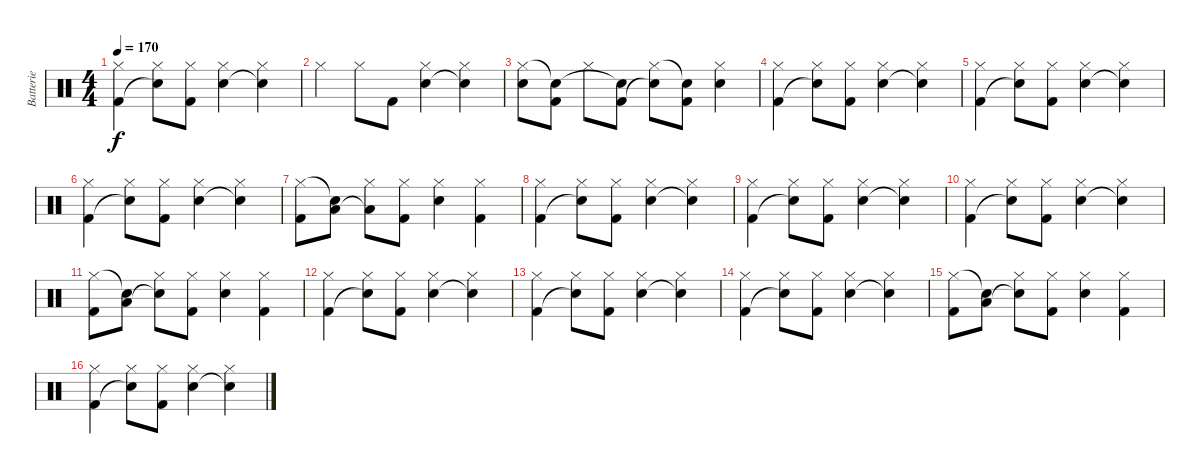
\track ("Batterie" "Batterie") {instrument percussion}
\staff {score}
\articulation defaults
\ts (4 4)
\tempo 170
\clef neutral
\ks c
("Kick (hit) 2" "Hi-Hat (closed)").4{dy f} ("Snare (hit)"{t} "Hi-Hat (closed)").8 ("Kick (hit) 2" "Hi-Hat (closed)").8 ("Snare (hit) 2" "Hi-Hat (closed)").4 ("Snare (hit)"{t} "Hi-Hat (closed)").4 |
"Hi-Hat (closed)".4 "Hi-Hat (closed)".8 "Kick (hit) 2".8 ("Snare (hit) 2" "Hi-Hat (closed)").4 ("Snare (hit)"{t} "Hi-Hat (closed)").4 |
("Snare (hit) 2" "Hi-Hat (closed)").8 ("Kick (hit) 2" "Snare (hit)"{t}).8 "Hi-Hat (closed)".8 ("Kick (hit) 2" "Snare (hit)"{t}).8 ("Snare (hit)"{t} "Hi-Hat (closed)").8 ("Kick (hit) 2" "Snare (hit)"{t}).8 ("Snare (hit) 2" "Hi-Hat (closed)").4 |
("Kick (hit) 2" "Hi-Hat (closed)").4 ("Snare (hit)"{t} "Hi-Hat (closed)").8 ("Kick (hit) 2" "Hi-Hat (closed)").8 ("Snare (hit) 2" "Hi-Hat (closed)").4 ("Snare (hit)"{t} "Hi-Hat (closed)").4 |
("Kick (hit) 2" "Hi-Hat (closed)").4 ("Snare (hit)"{t} "Hi-Hat (closed)").8 ("Kick (hit) 2" "Hi-Hat (closed)").8 ("Snare (hit) 2" "Hi-Hat (closed)").4 ("Snare (hit)"{t} "Hi-Hat (closed)").4 |
("Kick (hit) 2" "Hi-Hat (closed)").4 ("Snare (hit)"{t} "Hi-Hat (closed)").8 ("Kick (hit) 2" "Hi-Hat (closed)").8 ("Snare (hit) 2" "Hi-Hat (closed)").4 ("Snare (hit)"{t} "Hi-Hat (closed)").4 |
("Kick (hit) 2" "Hi-Hat (closed)").8 ("Low Tom (hit)" "Snare (hit)"{t}).8 ("Low Tom (hit)"{t} "Hi-Hat (closed)").8 ("Kick (hit) 2" "Hi-Hat (closed)").8 ("Snare (hit) 2" "Hi-Hat (closed)").4 ("Kick (hit) 2" "Hi-Hat (closed)").4 |
("Kick (hit) 2" "Hi-Hat (closed)").4 ("Snare (hit)"{t} "Hi-Hat (closed)").8 ("Kick (hit) 2" "Hi-Hat (closed)").8 ("Snare (hit) 2" "Hi-Hat (closed)").4 ("Snare (hit)"{t} "Hi-Hat (closed)").4 |
("Kick (hit) 2" "Hi-Hat (closed)").4 ("Snare (hit)"{t} "Hi-Hat (closed)").8 ("Kick (hit) 2" "Hi-Hat (closed)").8 ("Snare (hit) 2" "Hi-Hat (closed)").4 ("Snare (hit)"{t} "Hi-Hat (closed)").4 |
("Kick (hit) 2" "Hi-Hat (closed)").4 ("Snare (hit)"{t} "Hi-Hat (closed)").8 ("Kick (hit) 2" "Hi-Hat (closed)").8 ("Snare (hit) 2" "Hi-Hat (closed)").4 ("Snare (hit)"{t} "Hi-Hat (closed)").4 |
("Kick (hit) 2" "Hi-Hat (closed)").8 ("Low Tom (hit)" "Snare (hit)"{t}).8 ("Snare (hit)"{t} "Hi-Hat (closed)").8 ("Kick (hit) 2" "Hi-Hat (closed)").8 ("Snare (hit) 2" "Hi-Hat (closed)").4 ("Kick (hit) 2" "Hi-Hat (closed)").4 |
("Kick (hit) 2" "Hi-Hat (closed)").4 ("Snare (hit)"{t} "Hi-Hat (closed)").8 ("Kick (hit) 2" "Hi-Hat (closed)").8 ("Snare (hit) 2" "Hi-Hat (closed)").4 ("Snare (hit)"{t} "Hi-Hat (closed)").4 |
("Kick (hit) 2" "Hi-Hat (closed)").4 ("Snare (hit)"{t} "Hi-Hat (closed)").8 ("Kick (hit) 2" "Hi-Hat (closed)").8 ("Snare (hit) 2" "Hi-Hat (closed)").4 ("Snare (hit)"{t} "Hi-Hat (closed)").4 |
("Kick (hit) 2" "Hi-Hat (closed)").4 ("Snare (hit)"{t} "Hi-Hat (closed)").8 ("Kick (hit) 2" "Hi-Hat (closed)").8 ("Snare (hit) 2" "Hi-Hat (closed)").4 ("Snare (hit)"{t} "Hi-Hat (closed)").4 |
("Kick (hit) 2" "Hi-Hat (closed)").8 ("Low Tom (hit)" "Snare (hit)"{t}).8 ("Snare (hit)"{t} "Hi-Hat (closed)").8 ("Kick (hit) 2" "Hi-Hat (closed)").8 ("Snare (hit) 2" "Hi-Hat (closed)").4 ("Kick (hit) 2" "Hi-Hat (closed)").4 |
("Kick (hit) 2" "Hi-Hat (closed)").4 ("Snare (hit)"{t} "Hi-Hat (closed)").8 ("Kick (hit) 2" "Hi-Hat (closed)").8 ("Snare (hit) 2" "Hi-Hat (closed)").4 ("Snare (hit)"{t} "Hi-Hat (closed)").4
